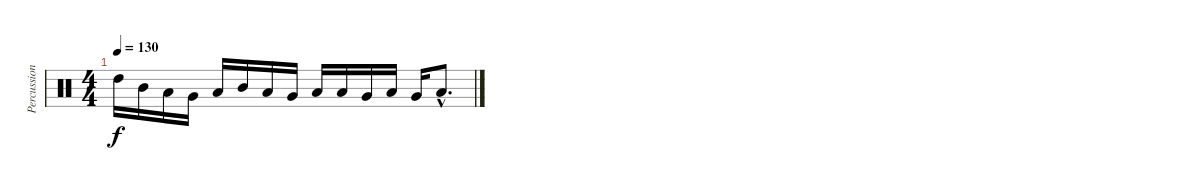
\track ("Percussion" "Percussion") {instrument percussion}
\staff {score}
\articulation defaults
\ts (4 4)
\tempo 130
\clef neutral
\ks c "High Tom (hit)".16{dy f} "Mid Tom (hit)".16 "Low Tom (hit)".16 "Very Low Tom (hit)".16 "Low Floor Tom (hit)".16 "Mid Tom (hit)".16 "Low Tom (hit)".16 "Very Low Tom (hit)".16 "Low Floor Tom (hit)".16 "Low Tom (hit)".16 "Very Low Tom (hit)".16 "Low Floor Tom (hit)".16 "Very Low Tom (hit)".16 "Low Floor Tom (hit)"{hac}.8{d}
